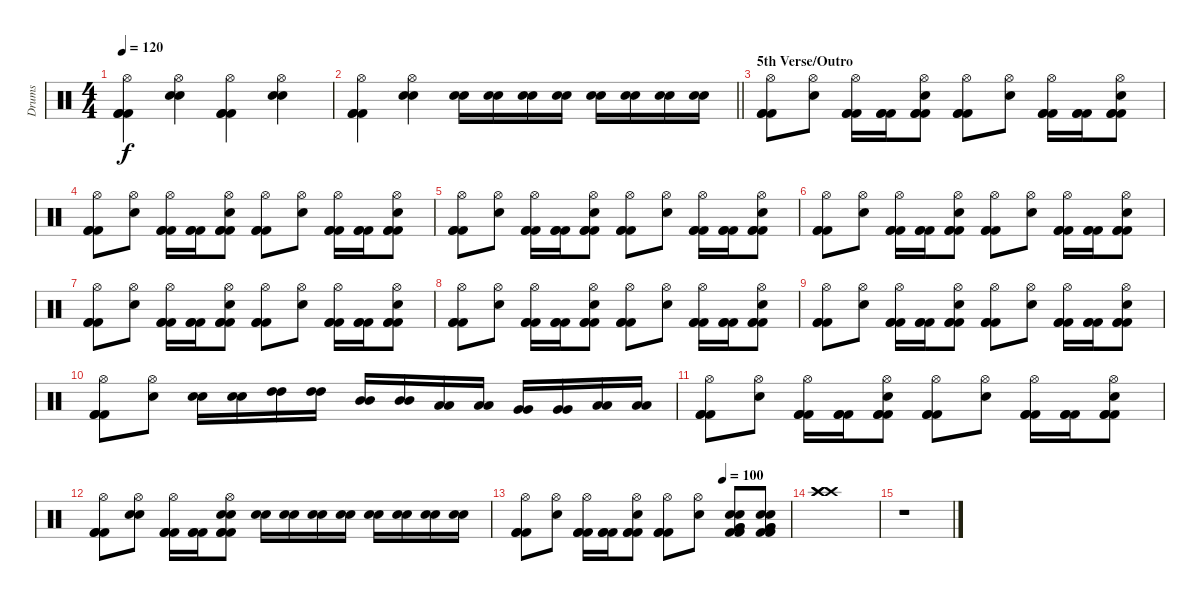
\track ("Drums" "Drums") {instrument percussion}
\staff {score}
\articulation defaults
\ts (4 4)
\tempo 120
\clef neutral
\ks c
("Hi-Hat (open)" "Kick (hit) 2" "Kick (hit) 2" "Kick (hit) 2").4{dy f} ("Hi-Hat (open)" "Snare (hit) 2" "Snare (hit) 2").4 ("Hi-Hat (open)" "Kick (hit) 2" "Kick (hit) 2" "Kick (hit) 2").4 ("Hi-Hat (open)" "Snare (hit) 2" "Snare (hit) 2").4 |
\barLineRight lightlight
("Hi-Hat (open)" "Kick (hit) 2" "Kick (hit) 2" "Kick (hit) 2").4 ("Hi-Hat (open)" "Snare (hit) 2" "Snare (hit) 2").4 ("Snare (hit) 2" "Snare (hit) 2").16 ("Snare (hit) 2" "Snare (hit) 2").16 ("Snare (hit) 2" "Snare (hit) 2").16 ("Snare (hit) 2" "Snare (hit) 2").16 ("Snare (hit) 2" "Snare (hit) 2").16 ("Snare (hit) 2" "Snare (hit) 2").16 ("Snare (hit) 2" "Snare (hit) 2").16 ("Snare (hit) 2" "Snare (hit) 2").16 |
\section ("" "5th Verse/Outro")
("Hi-Hat (open)" "Kick (hit) 2" "Kick (hit) 2" "Kick (hit) 2").8 ("Hi-Hat (open)" "Snare (hit) 2").8 ("Hi-Hat (open)" "Kick (hit) 2" "Kick (hit) 2" "Kick (hit) 2").16 ("Kick (hit) 2" "Kick (hit) 2" "Kick (hit) 2").16 ("Hi-Hat (open)" "Snare (hit) 2" "Kick (hit) 2" "Kick (hit) 2" "Kick (hit) 2").8 ("Hi-Hat (open)" "Kick (hit) 2" "Kick (hit) 2" "Kick (hit) 2").8 ("Hi-Hat (open)" "Snare (hit) 2").8 ("Hi-Hat (open)" "Kick (hit) 2" "Kick (hit) 2" "Kick (hit) 2").16 ("Kick (hit) 2" "Kick (hit) 2" "Kick (hit) 2").16 ("Hi-Hat (open)" "Snare (hit) 2" "Kick (hit) 2" "Kick (hit) 2" "Kick (hit) 2").8 |
("Hi-Hat (open)" "Kick (hit) 2" "Kick (hit) 2" "Kick (hit) 2").8 ("Hi-Hat (open)" "Snare (hit) 2").8 ("Hi-Hat (open)" "Kick (hit) 2" "Kick (hit) 2" "Kick (hit) 2").16 ("Kick (hit) 2" "Kick (hit) 2" "Kick (hit) 2").16 ("Hi-Hat (open)" "Snare (hit) 2" "Kick (hit) 2" "Kick (hit) 2" "Kick (hit) 2").8 ("Hi-Hat (open)" "Kick (hit) 2" "Kick (hit) 2" "Kick (hit) 2").8 ("Hi-Hat (open)" "Snare (hit) 2").8 ("Hi-Hat (open)" "Kick (hit) 2" "Kick (hit) 2" "Kick (hit) 2").16 ("Kick (hit) 2" "Kick (hit) 2" "Kick (hit) 2").16 ("Hi-Hat (open)" "Snare (hit) 2" "Kick (hit) 2" "Kick (hit) 2" "Kick (hit) 2").8 |
("Hi-Hat (open)" "Kick (hit) 2" "Kick (hit) 2" "Kick (hit) 2").8 ("Hi-Hat (open)" "Snare (hit) 2").8 ("Hi-Hat (open)" "Kick (hit) 2" "Kick (hit) 2" "Kick (hit) 2").16 ("Kick (hit) 2" "Kick (hit) 2" "Kick (hit) 2").16 ("Hi-Hat (open)" "Snare (hit) 2" "Kick (hit) 2" "Kick (hit) 2" "Kick (hit) 2").8 ("Hi-Hat (open)" "Kick (hit) 2" "Kick (hit) 2" "Kick (hit) 2").8 ("Hi-Hat (open)" "Snare (hit) 2").8 ("Hi-Hat (open)" "Kick (hit) 2" "Kick (hit) 2" "Kick (hit) 2").16 ("Kick (hit) 2" "Kick (hit) 2" "Kick (hit) 2").16 ("Hi-Hat (open)" "Snare (hit) 2" "Kick (hit) 2" "Kick (hit) 2" "Kick (hit) 2").8 |
("Hi-Hat (open)" "Kick (hit) 2" "Kick (hit) 2" "Kick (hit) 2").8 ("Hi-Hat (open)" "Snare (hit) 2").8 ("Hi-Hat (open)" "Kick (hit) 2" "Kick (hit) 2" "Kick (hit) 2").16 ("Kick (hit) 2" "Kick (hit) 2" "Kick (hit) 2").16 ("Hi-Hat (open)" "Snare (hit) 2" "Kick (hit) 2" "Kick (hit) 2" "Kick (hit) 2").8 ("Hi-Hat (open)" "Kick (hit) 2" "Kick (hit) 2" "Kick (hit) 2").8 ("Hi-Hat (open)" "Snare (hit) 2").8 ("Hi-Hat (open)" "Kick (hit) 2" "Kick (hit) 2" "Kick (hit) 2").16 ("Kick (hit) 2" "Kick (hit) 2" "Kick (hit) 2").16 ("Hi-Hat (open)" "Snare (hit) 2" "Kick (hit) 2" "Kick (hit) 2" "Kick (hit) 2").8 |
("Hi-Hat (open)" "Kick (hit) 2" "Kick (hit) 2" "Kick (hit) 2").8 ("Hi-Hat (open)" "Snare (hit) 2").8 ("Hi-Hat (open)" "Kick (hit) 2" "Kick (hit) 2" "Kick (hit) 2").16 ("Kick (hit) 2" "Kick (hit) 2" "Kick (hit) 2").16 ("Hi-Hat (open)" "Snare (hit) 2" "Kick (hit) 2" "Kick (hit) 2" "Kick (hit) 2").8 ("Hi-Hat (open)" "Kick (hit) 2" "Kick (hit) 2" "Kick (hit) 2").8 ("Hi-Hat (open)" "Snare (hit) 2").8 ("Hi-Hat (open)" "Kick (hit) 2" "Kick (hit) 2" "Kick (hit) 2").16 ("Kick (hit) 2" "Kick (hit) 2" "Kick (hit) 2").16 ("Hi-Hat (open)" "Snare (hit) 2" "Kick (hit) 2" "Kick (hit) 2" "Kick (hit) 2").8 |
("Hi-Hat (open)" "Kick (hit) 2" "Kick (hit) 2" "Kick (hit) 2").8 ("Hi-Hat (open)" "Snare (hit) 2").8 ("Hi-Hat (open)" "Kick (hit) 2" "Kick (hit) 2" "Kick (hit) 2").16 ("Kick (hit) 2" "Kick (hit) 2" "Kick (hit) 2").16 ("Hi-Hat (open)" "Snare (hit) 2" "Kick (hit) 2" "Kick (hit) 2" "Kick (hit) 2").8 ("Hi-Hat (open)" "Kick (hit) 2" "Kick (hit) 2" "Kick (hit) 2").8 ("Hi-Hat (open)" "Snare (hit) 2").8 ("Hi-Hat (open)" "Kick (hit) 2" "Kick (hit) 2" "Kick (hit) 2").16 ("Kick (hit) 2" "Kick (hit) 2" "Kick (hit) 2").16 ("Hi-Hat (open)" "Snare (hit) 2" "Kick (hit) 2" "Kick (hit) 2" "Kick (hit) 2").8 |
("Hi-Hat (open)" "Kick (hit) 2" "Kick (hit) 2" "Kick (hit) 2").8 ("Hi-Hat (open)" "Snare (hit) 2").8 ("Hi-Hat (open)" "Kick (hit) 2" "Kick (hit) 2" "Kick (hit) 2").16 ("Kick (hit) 2" "Kick (hit) 2" "Kick (hit) 2").16 ("Hi-Hat (open)" "Snare (hit) 2" "Kick (hit) 2" "Kick (hit) 2" "Kick (hit) 2").8 ("Hi-Hat (open)" "Kick (hit) 2" "Kick (hit) 2" "Kick (hit) 2").8 ("Hi-Hat (open)" "Snare (hit) 2").8 ("Hi-Hat (open)" "Kick (hit) 2" "Kick (hit) 2" "Kick (hit) 2").16 ("Kick (hit) 2" "Kick (hit) 2" "Kick (hit) 2").16 ("Hi-Hat (open)" "Snare (hit) 2" "Kick (hit) 2" "Kick (hit) 2" "Kick (hit) 2").8 |
("Hi-Hat (open)" "Kick (hit) 2" "Kick (hit) 2" "Kick (hit) 2").8 ("Hi-Hat (open)" "Snare (hit) 2").8 ("Snare (hit) 2" "Snare (hit) 2").16 ("Snare (hit) 2" "Snare (hit) 2").16 ("High Tom (hit)" "High Tom (hit)").16 ("High Tom (hit)" "High Tom (hit)").16 ("Mid Tom (hit)" "Mid Tom (hit)").16 ("Mid Tom (hit)" "Mid Tom (hit)").16 ("Low Tom (hit)" "Low Tom (hit)").16 ("Low Tom (hit)" "Low Tom (hit)").16 ("Very Low Tom (hit)" "Very Low Tom (hit)").16 ("Very Low Tom (hit)" "Very Low Tom (hit)").16 ("Low Floor Tom (hit)" "Low Floor Tom (hit)").16 ("Low Floor Tom (hit)" "Low Floor Tom (hit)").16 |
("Hi-Hat (open)" "Kick (hit) 2" "Kick (hit) 2" "Kick (hit) 2").8 ("Hi-Hat (open)" "Snare (hit) 2").8 ("Hi-Hat (open)" "Kick (hit) 2" "Kick (hit) 2" "Kick (hit) 2").16 ("Kick (hit) 2" "Kick (hit) 2" "Kick (hit) 2").16 ("Hi-Hat (open)" "Snare (hit) 2" "Kick (hit) 2" "Kick (hit) 2" "Kick (hit) 2").8 ("Hi-Hat (open)" "Kick (hit) 2" "Kick (hit) 2" "Kick (hit) 2").8 ("Hi-Hat (open)" "Snare (hit) 2").8 ("Hi-Hat (open)" "Kick (hit) 2" "Kick (hit) 2" "Kick (hit) 2").16 ("Kick (hit) 2" "Kick (hit) 2" "Kick (hit) 2").16 ("Hi-Hat (open)" "Snare (hit) 2" "Kick (hit) 2" "Kick (hit) 2" "Kick (hit) 2").8 |
("Hi-Hat (open)" "Kick (hit) 2" "Kick (hit) 2" "Kick (hit) 2").8 ("Hi-Hat (open)" "Snare (hit) 2" "Snare (hit) 2").8 ("Hi-Hat (open)" "Kick (hit) 2" "Kick (hit) 2" "Kick (hit) 2").16 ("Kick (hit) 2" "Kick (hit) 2" "Kick (hit) 2").16 ("Hi-Hat (open)" "Snare (hit) 2" "Snare (hit) 2" "Kick (hit) 2" "Kick (hit) 2" "Kick (hit) 2").8 ("Snare (hit) 2" "Snare (hit) 2").16 ("Snare (hit) 2" "Snare (hit) 2").16 ("Snare (hit) 2" "Snare (hit) 2").16 ("Snare (hit) 2" "Snare (hit) 2").16 ("Snare (hit) 2" "Snare (hit) 2").16 ("Snare (hit) 2" "Snare (hit) 2").16 ("Snare (hit) 2" "Snare (hit) 2").16 ("Snare (hit) 2" "Snare (hit) 2").16 |
\tempo (100 0.75)
("Hi-Hat (open)" "Kick (hit) 2" "Kick (hit) 2" "Kick (hit) 2").8 ("Hi-Hat (open)" "Snare (hit) 2").8 ("Hi-Hat (open)" "Kick (hit) 2" "Kick (hit) 2" "Kick (hit) 2").16 ("Kick (hit) 2" "Kick (hit) 2" "Kick (hit) 2").16 ("Hi-Hat (open)" "Snare (hit) 2" "Kick (hit) 2" "Kick (hit) 2" "Kick (hit) 2").8 ("Hi-Hat (open)" "Kick (hit) 2" "Kick (hit) 2" "Kick (hit) 2").8 ("Hi-Hat (open)" "Snare (hit) 2").8 ("Snare (hit) 2" "Snare (hit) 2" "Very Low Tom (hit)" "Very Low Tom (hit)" "Kick (hit) 2" "Kick (hit) 2").8 ("Snare (hit) 2" "Snare (hit) 2" "Very Low Tom (hit)" "Very Low Tom (hit)" "Kick (hit) 2" "Kick (hit) 2").8 |
("Crash high (hit)" "Crash high (hit)" "Crash high (hit)").1 |
r.1
